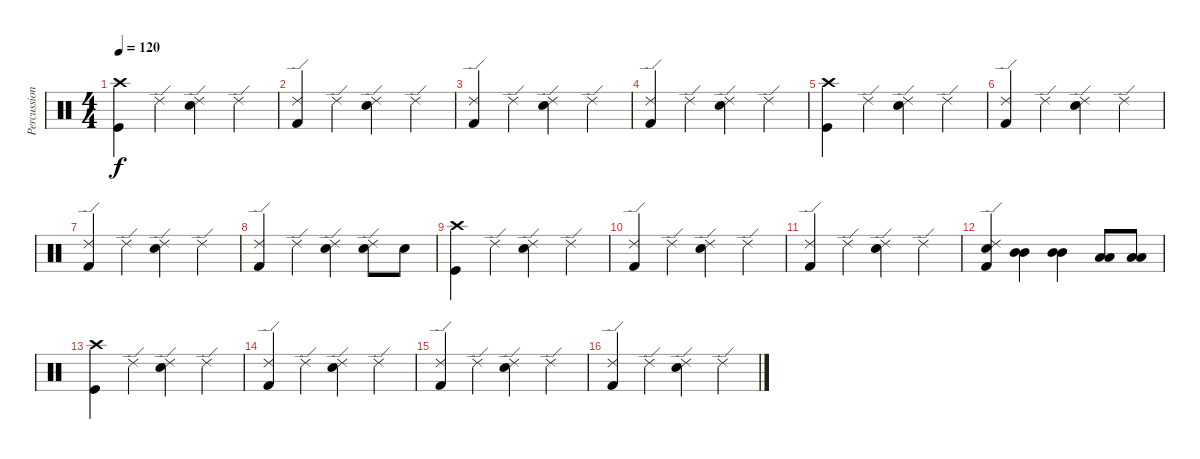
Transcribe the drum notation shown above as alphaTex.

\track ("Percussion" "Percussion") {instrument percussion}
\staff {score}
\articulation defaults
\ts (4 4)
\tempo 120
\clef neutral
\ks c
("Crash high (hit)" "Kick (hit)").4{dy f} "Ride (edge) 2".4 ("Ride (edge) 2" "Snare (hit) 2").4 "Ride (edge) 2".4 |
("Ride (edge) 2" "Kick (hit) 2").4 "Ride (edge) 2".4 ("Ride (edge) 2" "Snare (hit) 2").4 "Ride (edge) 2".4 |
("Ride (edge) 2" "Kick (hit) 2").4 "Ride (edge) 2".4 ("Ride (edge) 2" "Snare (hit) 2").4 "Ride (edge) 2".4 |
("Ride (edge) 2" "Kick (hit) 2").4 "Ride (edge) 2".4 ("Ride (edge) 2" "Snare (hit) 2").4 "Ride (edge) 2".4 |
("Crash high (hit)" "Kick (hit)").4 "Ride (edge) 2".4 ("Ride (edge) 2" "Snare (hit) 2").4 "Ride (edge) 2".4 |
("Ride (edge) 2" "Kick (hit) 2").4 "Ride (edge) 2".4 ("Ride (edge) 2" "Snare (hit) 2").4 "Ride (edge) 2".4 |
("Ride (edge) 2" "Kick (hit) 2").4 "Ride (edge) 2".4 ("Ride (edge) 2" "Snare (hit) 2").4 "Ride (edge) 2".4 |
("Ride (edge) 2" "Kick (hit) 2").4 "Ride (edge) 2".4 ("Ride (edge) 2" "Snare (hit) 2").4 ("Ride (edge) 2" "Snare (hit) 2").8 "Snare (hit) 2".8 |
("Crash high (hit)" "Kick (hit)").4 "Ride (edge) 2".4 ("Ride (edge) 2" "Snare (hit) 2").4 "Ride (edge) 2".4 |
("Ride (edge) 2" "Kick (hit) 2").4 "Ride (edge) 2".4 ("Ride (edge) 2" "Snare (hit) 2").4 "Ride (edge) 2".4 |
("Ride (edge) 2" "Kick (hit) 2").4 "Ride (edge) 2".4 ("Ride (edge) 2" "Snare (hit) 2").4 "Ride (edge) 2".4 |
("Ride (edge) 2" "Snare (hit) 2" "Kick (hit) 2").4 ("Mid Tom (hit)" "Mid Tom (hit)").4 ("Mid Tom (hit)" "Mid Tom (hit)").4 ("Low Tom (hit)" "Low Tom (hit)").8 ("Low Tom (hit)" "Low Tom (hit)").8 |
("Crash high (hit)" "Kick (hit)").4 "Ride (edge) 2".4 ("Ride (edge) 2" "Snare (hit) 2").4 "Ride (edge) 2".4 |
("Ride (edge) 2" "Kick (hit) 2").4 "Ride (edge) 2".4 ("Ride (edge) 2" "Snare (hit) 2").4 "Ride (edge) 2".4 |
("Ride (edge) 2" "Kick (hit) 2").4 "Ride (edge) 2".4 ("Ride (edge) 2" "Snare (hit) 2").4 "Ride (edge) 2".4 |
("Ride (edge) 2" "Kick (hit) 2").4 "Ride (edge) 2".4 ("Ride (edge) 2" "Snare (hit) 2").4 "Ride (edge) 2".4
